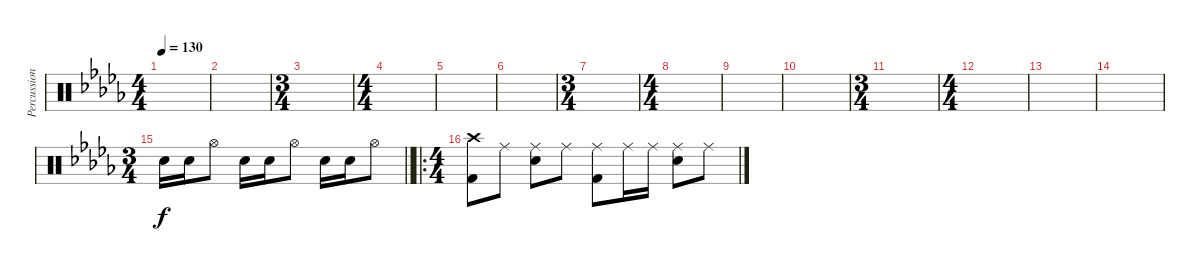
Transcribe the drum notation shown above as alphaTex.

\track ("Percussions" "Percussion") {instrument percussion}
\staff {score}
\articulation defaults
\ts (4 4)
\tempo 130
\clef neutral
\ks db
|
|
\ts (3 4)
|
\ts (4 4)
|
|
|
\ts (3 4)
|
\ts (4 4)
|
|
|
\ts (3 4)
|
\ts (4 4)
|
|
|
\ts (3 4)
\barLineRight lightlight "Snare (hit) 2".16 "Snare (hit) 2".16 "Hi-Hat (open)".8 "Snare (hit) 2".16 "Snare (hit) 2".16 "Hi-Hat (open)".8 "Snare (hit) 2".16 "Snare (hit) 2".16 "Hi-Hat (open)".8
|
\ro
\ts (4 4)
("Crash high (hit)" "Kick (hit) 2").8 "Ride (middle)".8 ("Ride (middle)" "Snare (hit) 2").8 "Ride (middle)".8 ("Ride (middle)" "Kick (hit) 2").8 "Ride (middle)".16 "Ride (middle)".16 ("Ride (middle)" "Snare (hit) 2").8 "Ride (middle)".8
